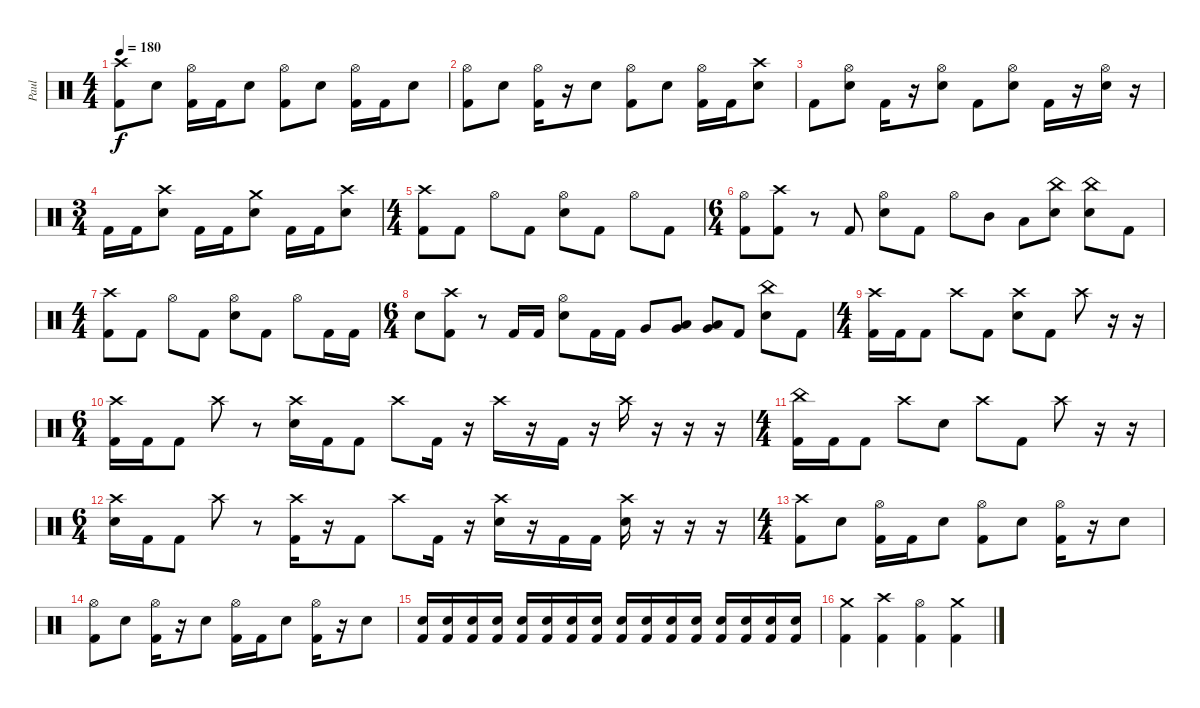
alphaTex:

\track ("Paul " "Paul ") {instrument percussion}
\staff {score}
\articulation defaults
\ts (4 4)
\tempo 180
\clef neutral
\ks c
("Kick (hit) 2" "Crash high (hit)").8{dy f volume 16} "Electric Snare (hit)".8 ("Kick (hit) 2" "Hi-Hat (open)").16 "Kick (hit) 2".16 "Electric Snare (hit)".8 ("Kick (hit) 2" "Hi-Hat (open)").8 "Electric Snare (hit)".8 ("Kick (hit) 2" "Hi-Hat (open)").16 "Kick (hit) 2".16 "Electric Snare (hit)".8 |
("Kick (hit) 2" "Hi-Hat (open)").8 "Electric Snare (hit)".8 ("Kick (hit) 2" "Hi-Hat (open)").16 r.16 "Electric Snare (hit)".8 ("Kick (hit) 2" "Hi-Hat (open)").8 "Electric Snare (hit)".8 ("Kick (hit) 2" "Hi-Hat (open)").16 "Kick (hit) 2".16 ("Electric Snare (hit)" "Crash high (hit)").8 |
"Kick (hit) 2".8 ("Electric Snare (hit)" "Hi-Hat (open)").8 "Kick (hit) 2".16 r.16 ("Electric Snare (hit)" "Hi-Hat (open)").8 "Kick (hit) 2".8 ("Electric Snare (hit)" "Hi-Hat (open)").8 "Kick (hit) 2".16 r.16 ("Electric Snare (hit)" "Hi-Hat (open)").16 r.16 |
\ts (3 4)
"Kick (hit) 2".16 "Kick (hit) 2".16 ("Electric Snare (hit)" "Crash high (hit)").8 "Kick (hit) 2".16 "Kick (hit) 2".16 ("Electric Snare (hit)" "Crash medium (hit)").8 "Kick (hit) 2".16 "Kick (hit) 2".16 ("Electric Snare (hit)" "Crash high (hit)").8 |
\ts (4 4)
("Kick (hit) 2" "Crash high (hit)").8 "Kick (hit) 2".8 "Hi-Hat (open)".8 "Kick (hit) 2".8 ("Electric Snare (hit)" "Hi-Hat (open)").8 "Kick (hit) 2".8 "Hi-Hat (open)".8 "Kick (hit) 2".8 |
\ts (6 4)
("Kick (hit) 2" "Hi-Hat (open)").8 ("Kick (hit) 2" "Crash high (hit)").8 r.8 "Kick (hit) 2".8 ("Electric Snare (hit)" "Hi-Hat (open)").8 "Kick (hit) 2".8 "Hi-Hat (open)".8 "Mid Tom (hit)".8 "Low Tom (hit)".8 ("China (hit)" "Electric Snare (hit)").8 ("China (hit)" "Electric Snare (hit)").8 "Kick (hit) 2".8 |
\ts (4 4)
("Kick (hit) 2" "Crash high (hit)").8 "Kick (hit) 2".8 "Hi-Hat (open)".8 "Kick (hit) 2".8 ("Electric Snare (hit)" "Hi-Hat (open)").8 "Kick (hit) 2".8 "Hi-Hat (open)".8 "Kick (hit) 2".16 "Kick (hit) 2".16 |
\ts (6 4)
"Electric Snare (hit)".8 ("Kick (hit) 2" "Crash high (hit)").8 r.8 "Kick (hit) 2".16 "Kick (hit) 2".16 ("Electric Snare (hit)" "Hi-Hat (open)").8 "Kick (hit) 2".16 "Kick (hit) 2".16 "Very Low Tom (hit)".8 ("Low Floor Tom (hit)" "Very Low Tom (hit)").8 ("Very Low Tom (hit)" "Low Floor Tom (hit)").8 "Kick (hit) 2".8 ("China (hit)" "Electric Snare (hit)").8 "Kick (hit) 2".8 |
\ts (4 4)
("Kick (hit) 2" "Crash high (hit)").16 "Kick (hit) 2".16 "Kick (hit) 2".8 "Crash high (hit)".8 "Kick (hit) 2".8 ("Electric Snare (hit)" "Crash high (hit)").8 "Kick (hit) 2".8 "Crash high (hit)".8 r.16 r.16 |
\ts (6 4)
("Kick (hit) 2" "Crash high (hit)").16 "Kick (hit) 2".16 "Kick (hit) 2".8 "Crash high (hit)".8 r.8 ("Electric Snare (hit)" "Crash high (hit)").16 "Kick (hit) 2".16 "Kick (hit) 2".8 "Crash high (hit)".8 "Kick (hit) 2".16 r.16 "Crash high (hit)".16 r.16 "Kick (hit) 2".16 r.16 "Crash high (hit)".16 r.16 r.16 r.16 |
\ts (4 4)
("Kick (hit) 2" "China (hit)").16 "Kick (hit) 2".16 "Kick (hit) 2".8 "Crash high (hit)".8 "Electric Snare (hit)".8 "Crash high (hit)".8 "Kick (hit) 2".8 "Crash high (hit)".8 r.16 r.16 |
\ts (6 4)
("Electric Snare (hit)" "Crash high (hit)").16 "Kick (hit) 2".16 "Kick (hit) 2".8 "Crash high (hit)".8 r.8 ("Kick (hit) 2" "Crash high (hit)").16 r.16 "Kick (hit) 2".8 "Crash high (hit)".8 "Kick (hit) 2".16 r.16 ("Electric Snare (hit)" "Crash high (hit)").16 r.16 "Kick (hit) 2".16 "Kick (hit) 2".16 ("Electric Snare (hit)" "Crash high (hit)").16 r.16 r.16 r.16 |
\ts (4 4)
("Kick (hit) 2" "Crash high (hit)").8 "Electric Snare (hit)".8 ("Kick (hit) 2" "Hi-Hat (open)").16 "Kick (hit) 2".16 "Electric Snare (hit)".8 ("Kick (hit) 2" "Hi-Hat (open)").8 "Electric Snare (hit)".8 ("Kick (hit) 2" "Hi-Hat (open)").16 r.16 "Electric Snare (hit)".8 |
("Kick (hit) 2" "Hi-Hat (open)").8 "Electric Snare (hit)".8 ("Kick (hit) 2" "Hi-Hat (open)").16 r.16 "Electric Snare (hit)".8 ("Kick (hit) 2" "Hi-Hat (open)").16 "Kick (hit) 2".16 "Electric Snare (hit)".8 ("Kick (hit) 2" "Hi-Hat (open)").16 r.16 "Electric Snare (hit)".8 |
("Electric Snare (hit)" "Kick (hit) 2").16 ("Electric Snare (hit)" "Kick (hit) 2").16 ("Electric Snare (hit)" "Kick (hit) 2").16 ("Electric Snare (hit)" "Kick (hit) 2").16 ("Electric Snare (hit)" "Kick (hit) 2").16 ("Electric Snare (hit)" "Kick (hit) 2").16 ("Electric Snare (hit)" "Kick (hit) 2").16 ("Electric Snare (hit)" "Kick (hit) 2").16 ("Electric Snare (hit)" "Kick (hit) 2").16 ("Electric Snare (hit)" "Kick (hit) 2").16 ("Electric Snare (hit)" "Kick (hit) 2").16 ("Electric Snare (hit)" "Kick (hit) 2").16 ("Electric Snare (hit)" "Kick (hit) 2").16 ("Electric Snare (hit)" "Kick (hit) 2").16 ("Electric Snare (hit)" "Kick (hit) 2").16 ("Electric Snare (hit)" "Kick (hit) 2").16 |
("Crash medium (hit)" "Kick (hit) 2").4 ("Crash high (hit)" "Kick (hit) 2").4 ("Hi-Hat (open)" "Kick (hit) 2").4 ("Crash medium (hit)" "Kick (hit) 2").4
